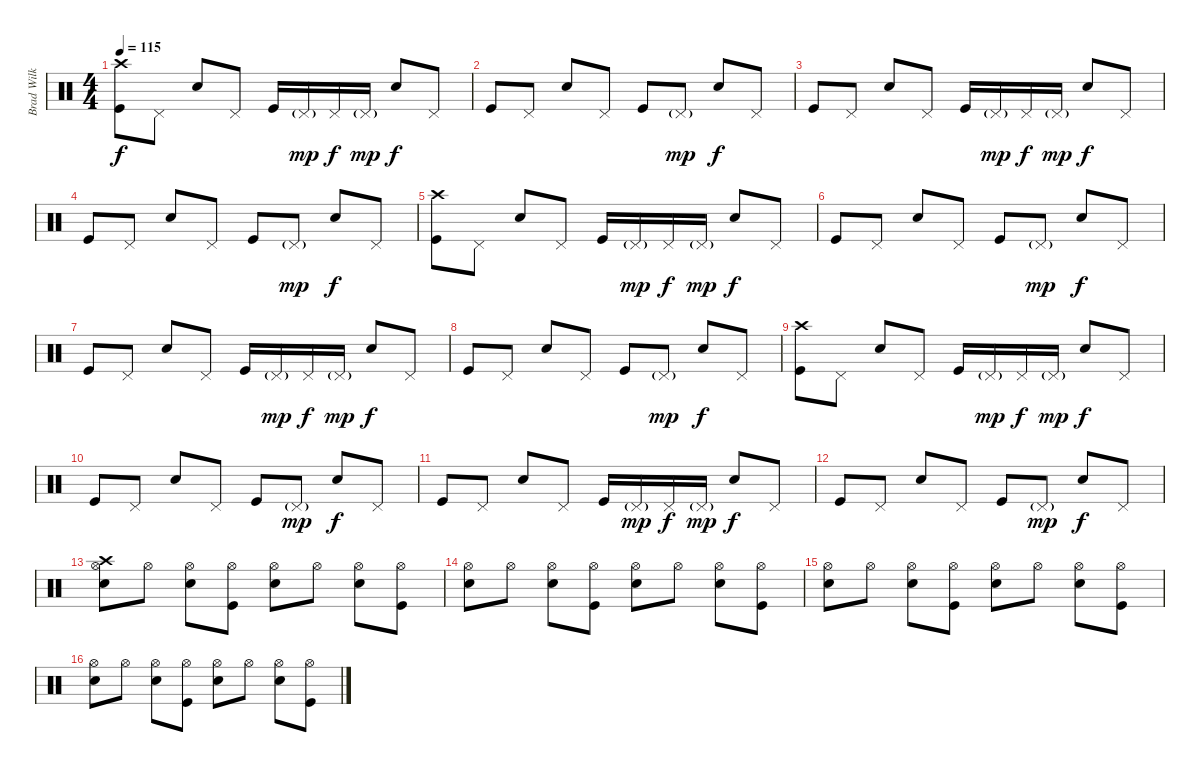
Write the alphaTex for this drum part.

\track ("Brad Wilk - Drums" "Brad Wilk ") {instrument percussion}
\staff {score}
\articulation defaults
\ts (4 4)
\tempo 115
\clef neutral
\ks c
("Crash high (hit)" "Kick (hit)").8{dy f} "Pedal Hi-Hat (hit)".8 "Snare (hit) 2".8 "Pedal Hi-Hat (hit)".8 "Kick (hit)".16 "Pedal Hi-Hat (hit)"{g}.16{dy mp} "Pedal Hi-Hat (hit)".16{dy f} "Pedal Hi-Hat (hit)"{g}.16{dy mp} "Snare (hit) 2".8{dy f} "Pedal Hi-Hat (hit)".8 |
"Kick (hit)".8 "Pedal Hi-Hat (hit)".8 "Snare (hit) 2".8 "Pedal Hi-Hat (hit)".8 "Kick (hit)".8 "Pedal Hi-Hat (hit)"{g}.8{dy mp} "Snare (hit) 2".8{dy f} "Pedal Hi-Hat (hit)".8 |
"Kick (hit)".8 "Pedal Hi-Hat (hit)".8 "Snare (hit) 2".8 "Pedal Hi-Hat (hit)".8 "Kick (hit)".16 "Pedal Hi-Hat (hit)"{g}.16{dy mp} "Pedal Hi-Hat (hit)".16{dy f} "Pedal Hi-Hat (hit)"{g}.16{dy mp} "Snare (hit) 2".8{dy f} "Pedal Hi-Hat (hit)".8 |
"Kick (hit)".8 "Pedal Hi-Hat (hit)".8 "Snare (hit) 2".8 "Pedal Hi-Hat (hit)".8 "Kick (hit)".8 "Pedal Hi-Hat (hit)"{g}.8{dy mp} "Snare (hit) 2".8{dy f} "Pedal Hi-Hat (hit)".8 |
("Crash high (hit)" "Kick (hit)").8 "Pedal Hi-Hat (hit)".8 "Snare (hit) 2".8 "Pedal Hi-Hat (hit)".8 "Kick (hit)".16 "Pedal Hi-Hat (hit)"{g}.16{dy mp} "Pedal Hi-Hat (hit)".16{dy f} "Pedal Hi-Hat (hit)"{g}.16{dy mp} "Snare (hit) 2".8{dy f} "Pedal Hi-Hat (hit)".8 |
"Kick (hit)".8 "Pedal Hi-Hat (hit)".8 "Snare (hit) 2".8 "Pedal Hi-Hat (hit)".8 "Kick (hit)".8 "Pedal Hi-Hat (hit)"{g}.8{dy mp} "Snare (hit) 2".8{dy f} "Pedal Hi-Hat (hit)".8 |
"Kick (hit)".8 "Pedal Hi-Hat (hit)".8 "Snare (hit) 2".8 "Pedal Hi-Hat (hit)".8 "Kick (hit)".16 "Pedal Hi-Hat (hit)"{g}.16{dy mp} "Pedal Hi-Hat (hit)".16{dy f} "Pedal Hi-Hat (hit)"{g}.16{dy mp} "Snare (hit) 2".8{dy f} "Pedal Hi-Hat (hit)".8 |
"Kick (hit)".8 "Pedal Hi-Hat (hit)".8 "Snare (hit) 2".8 "Pedal Hi-Hat (hit)".8 "Kick (hit)".8 "Pedal Hi-Hat (hit)"{g}.8{dy mp} "Snare (hit) 2".8{dy f} "Pedal Hi-Hat (hit)".8 |
("Crash high (hit)" "Kick (hit)").8 "Pedal Hi-Hat (hit)".8 "Snare (hit) 2".8 "Pedal Hi-Hat (hit)".8 "Kick (hit)".16 "Pedal Hi-Hat (hit)"{g}.16{dy mp} "Pedal Hi-Hat (hit)".16{dy f} "Pedal Hi-Hat (hit)"{g}.16{dy mp} "Snare (hit) 2".8{dy f} "Pedal Hi-Hat (hit)".8 |
"Kick (hit)".8 "Pedal Hi-Hat (hit)".8 "Snare (hit) 2".8 "Pedal Hi-Hat (hit)".8 "Kick (hit)".8 "Pedal Hi-Hat (hit)"{g}.8{dy mp} "Snare (hit) 2".8{dy f} "Pedal Hi-Hat (hit)".8 |
"Kick (hit)".8 "Pedal Hi-Hat (hit)".8 "Snare (hit) 2".8 "Pedal Hi-Hat (hit)".8 "Kick (hit)".16 "Pedal Hi-Hat (hit)"{g}.16{dy mp} "Pedal Hi-Hat (hit)".16{dy f} "Pedal Hi-Hat (hit)"{g}.16{dy mp} "Snare (hit) 2".8{dy f} "Pedal Hi-Hat (hit)".8 |
"Kick (hit)".8 "Pedal Hi-Hat (hit)".8 "Snare (hit) 2".8 "Pedal Hi-Hat (hit)".8 "Kick (hit)".8 "Pedal Hi-Hat (hit)"{g}.8{dy mp} "Snare (hit) 2".8{dy f} "Pedal Hi-Hat (hit)".8 |
("Crash high (hit)" "Snare (hit) 2" "Hi-Hat (open)").8 "Hi-Hat (open)".8 ("Snare (hit) 2" "Hi-Hat (open)").8 ("Hi-Hat (open)" "Kick (hit)").8 ("Snare (hit) 2" "Hi-Hat (open)").8 "Hi-Hat (open)".8 ("Snare (hit) 2" "Hi-Hat (open)").8 ("Hi-Hat (open)" "Kick (hit)").8 |
("Snare (hit) 2" "Hi-Hat (open)").8 "Hi-Hat (open)".8 ("Snare (hit) 2" "Hi-Hat (open)").8 ("Hi-Hat (open)" "Kick (hit)").8 ("Snare (hit) 2" "Hi-Hat (open)").8 "Hi-Hat (open)".8 ("Snare (hit) 2" "Hi-Hat (open)").8 ("Hi-Hat (open)" "Kick (hit)").8 |
("Snare (hit) 2" "Hi-Hat (open)").8 "Hi-Hat (open)".8 ("Snare (hit) 2" "Hi-Hat (open)").8 ("Hi-Hat (open)" "Kick (hit)").8 ("Snare (hit) 2" "Hi-Hat (open)").8 "Hi-Hat (open)".8 ("Snare (hit) 2" "Hi-Hat (open)").8 ("Hi-Hat (open)" "Kick (hit)").8 |
("Snare (hit) 2" "Hi-Hat (open)").8 "Hi-Hat (open)".8 ("Snare (hit) 2" "Hi-Hat (open)").8 ("Hi-Hat (open)" "Kick (hit)").8 ("Snare (hit) 2" "Hi-Hat (open)").8 "Hi-Hat (open)".8 ("Snare (hit) 2" "Hi-Hat (open)").8 ("Hi-Hat (open)" "Kick (hit)").8
